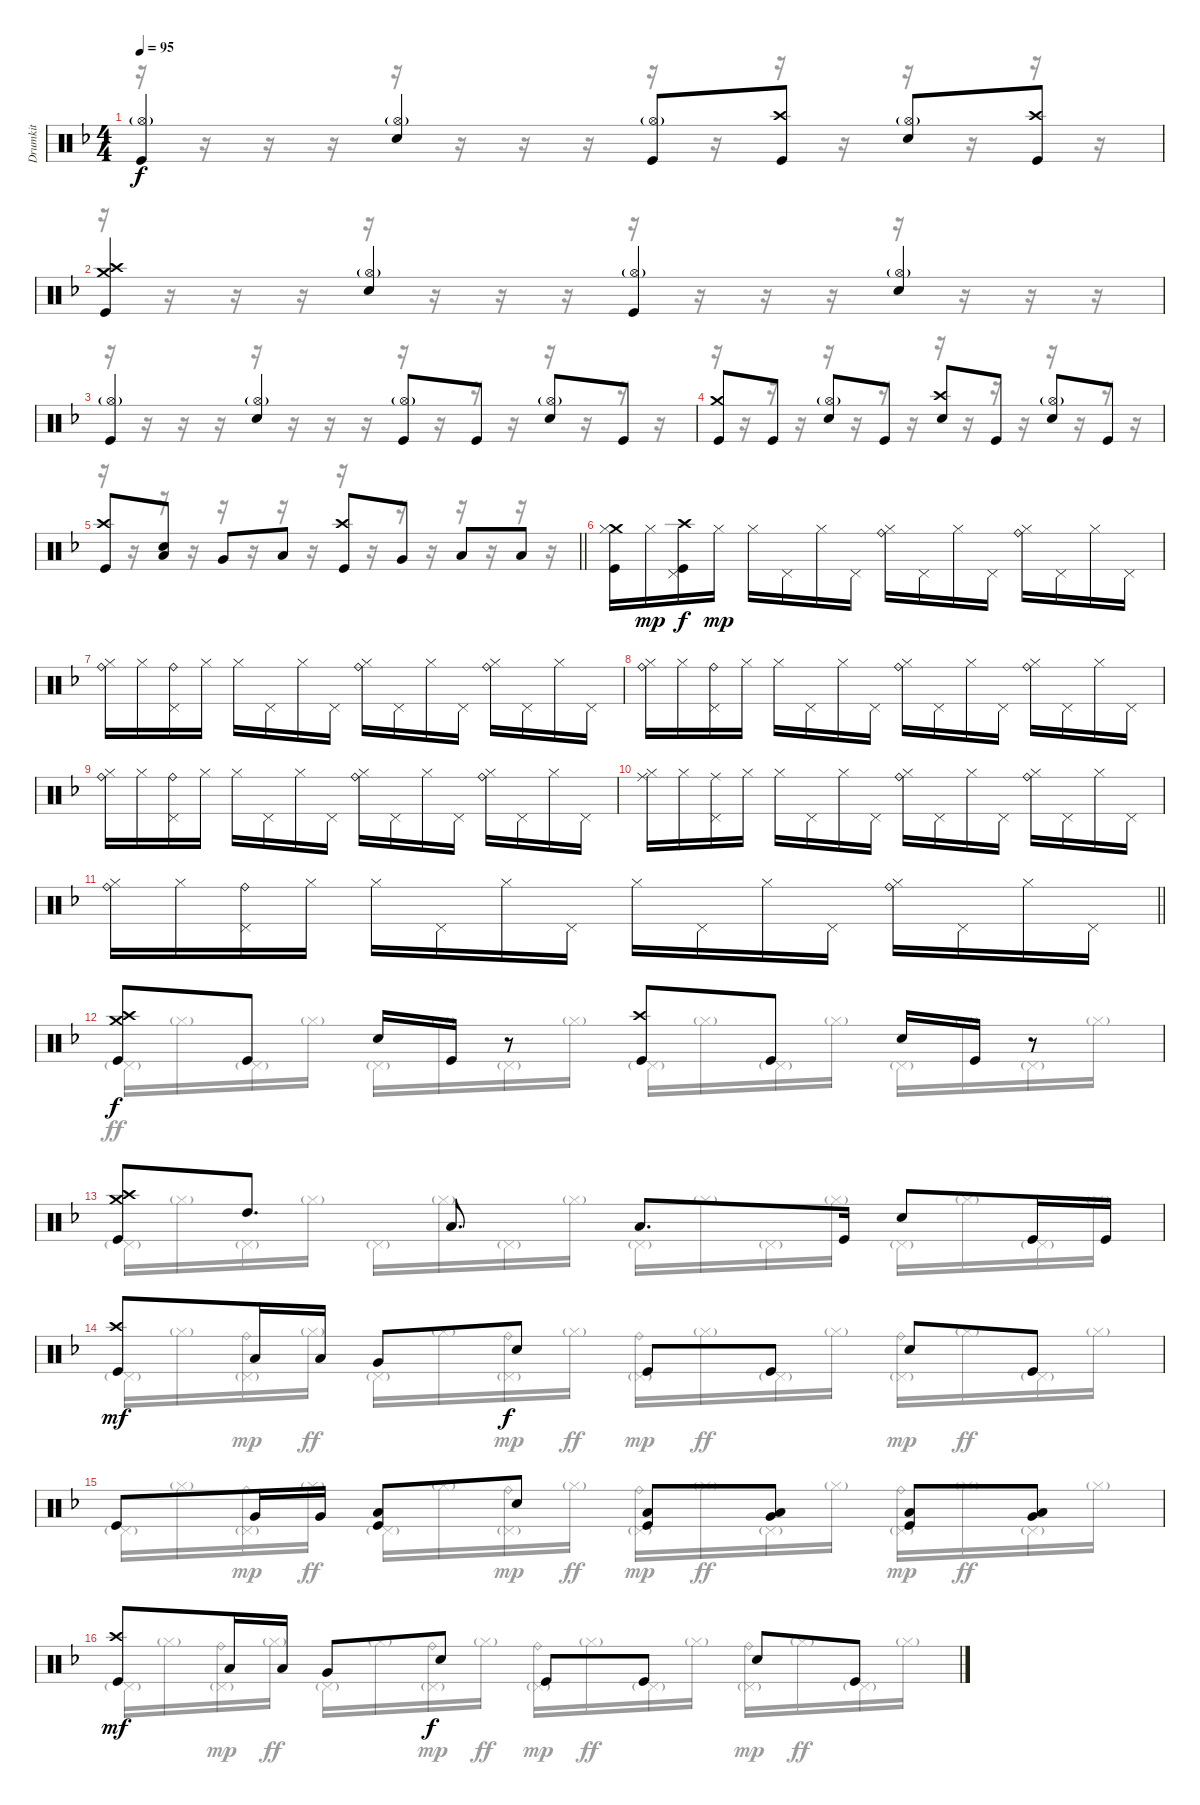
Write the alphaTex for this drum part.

\track ("Drumkit" "Drumkit") {instrument percussion}
\staff {score}
\articulation defaults
\voice
\ts (4 4)
\tempo 95
\clef neutral
\ks f
("Hi-Hat (open)"{g} "Kick (hit)").4{dy f} ("Hi-Hat (open)"{g} "Snare (hit) 2").4 ("Hi-Hat (open)"{g} "Kick (hit)").8 ("Crash high (hit)" "Kick (hit)").8 ("Hi-Hat (open)"{g} "Snare (hit) 2").8 ("Crash high (hit)" "Kick (hit)").8 |
("Crash high (hit)" "Crash medium (hit)" "Kick (hit)").4 ("Hi-Hat (open)"{g} "Snare (hit) 2").4 ("Hi-Hat (open)"{g} "Kick (hit)").4 ("Hi-Hat (open)"{g} "Snare (hit) 2").4 |
("Hi-Hat (open)"{g} "Kick (hit)").4 ("Hi-Hat (open)"{g} "Snare (hit) 2").4 ("Hi-Hat (open)"{g} "Kick (hit)").8 "Kick (hit)".8 ("Hi-Hat (open)"{g} "Snare (hit) 2").8 "Kick (hit)".8 |
("Crash medium (hit)" "Kick (hit)").8 "Kick (hit)".8 ("Hi-Hat (open)"{g} "Snare (hit) 2").8 "Kick (hit)".8 ("Crash high (hit)" "Snare (hit) 2").8 "Kick (hit)".8 ("Hi-Hat (open)"{g} "Snare (hit) 2").8 "Kick (hit)".8 |
\barLineRight lightlight
("Crash high (hit)" "Kick (hit)").8 ("Snare (hit) 2" "Low Tom (hit)").8 "Very Low Tom (hit)".8 "Low Floor Tom (hit)".8 ("Crash high (hit)" "Kick (hit)").8 "Very Low Tom (hit)".8 "Low Floor Tom (hit)".8 "Low Floor Tom (hit)".8 |
("Crash medium (hit)" "Hi-Hat (closed)" "Kick (hit)").16 "Hi-Hat (closed)".16{dy mp} ("Crash high (hit)" "Pedal Hi-Hat (hit)" "Kick (hit)").16{dy f} "Hi-Hat (closed)".16{dy mp} "Hi-Hat (closed)".16 "Pedal Hi-Hat (hit)".16 "Hi-Hat (closed)".16 "Pedal Hi-Hat (hit)".16 ("Hi-Hat (closed)" "Ride (bell)").16 "Pedal Hi-Hat (hit)".16 "Hi-Hat (closed)".16 "Pedal Hi-Hat (hit)".16 ("Hi-Hat (closed)" "Ride (bell)").16 "Pedal Hi-Hat (hit)".16 "Hi-Hat (closed)".16 "Pedal Hi-Hat (hit)".16 |
("Hi-Hat (closed)" "Ride (bell)").16 "Hi-Hat (closed)".16 ("Pedal Hi-Hat (hit)" "Ride (bell)").16 "Hi-Hat (closed)".16 "Hi-Hat (closed)".16 "Pedal Hi-Hat (hit)".16 "Hi-Hat (closed)".16 "Pedal Hi-Hat (hit)".16 ("Hi-Hat (closed)" "Ride (bell)").16 "Pedal Hi-Hat (hit)".16 "Hi-Hat (closed)".16 "Pedal Hi-Hat (hit)".16 ("Hi-Hat (closed)" "Ride (bell)").16 "Pedal Hi-Hat (hit)".16 "Hi-Hat (closed)".16 "Pedal Hi-Hat (hit)".16 |
("Hi-Hat (closed)" "Ride (bell)").16 "Hi-Hat (closed)".16 ("Pedal Hi-Hat (hit)" "Ride (bell)").16 "Hi-Hat (closed)".16 "Hi-Hat (closed)".16 "Pedal Hi-Hat (hit)".16 "Hi-Hat (closed)".16 "Pedal Hi-Hat (hit)".16 ("Hi-Hat (closed)" "Ride (bell)").16 "Pedal Hi-Hat (hit)".16 "Hi-Hat (closed)".16 "Pedal Hi-Hat (hit)".16 ("Hi-Hat (closed)" "Ride (bell)").16 "Pedal Hi-Hat (hit)".16 "Hi-Hat (closed)".16 "Pedal Hi-Hat (hit)".16 |
("Hi-Hat (closed)" "Ride (bell)").16 "Hi-Hat (closed)".16 ("Pedal Hi-Hat (hit)" "Ride (bell)").16 "Hi-Hat (closed)".16 "Hi-Hat (closed)".16 "Pedal Hi-Hat (hit)".16 "Hi-Hat (closed)".16 "Pedal Hi-Hat (hit)".16 ("Hi-Hat (closed)" "Ride (bell)").16 "Pedal Hi-Hat (hit)".16 "Hi-Hat (closed)".16 "Pedal Hi-Hat (hit)".16 ("Hi-Hat (closed)" "Ride (bell)").16 "Pedal Hi-Hat (hit)".16 "Hi-Hat (closed)".16 "Pedal Hi-Hat (hit)".16 |
("Hi-Hat (closed)" "Ride (middle)").16 "Hi-Hat (closed)".16 ("Pedal Hi-Hat (hit)" "Ride (middle)").16 "Hi-Hat (closed)".16 "Hi-Hat (closed)".16 "Pedal Hi-Hat (hit)".16 "Hi-Hat (closed)".16 "Pedal Hi-Hat (hit)".16 ("Hi-Hat (closed)" "Ride (bell)").16 "Pedal Hi-Hat (hit)".16 "Hi-Hat (closed)".16 "Pedal Hi-Hat (hit)".16 ("Hi-Hat (closed)" "Ride (bell)").16 "Pedal Hi-Hat (hit)".16 "Hi-Hat (closed)".16 "Pedal Hi-Hat (hit)".16 |
\barLineRight lightlight
("Hi-Hat (closed)" "Ride (bell)").16 "Hi-Hat (closed)".16 ("Pedal Hi-Hat (hit)" "Ride (bell)").16 "Hi-Hat (closed)".16 "Hi-Hat (closed)".16 "Pedal Hi-Hat (hit)".16 "Hi-Hat (closed)".16 "Pedal Hi-Hat (hit)".16 "Hi-Hat (closed)".16 "Pedal Hi-Hat (hit)".16 "Hi-Hat (closed)".16 "Pedal Hi-Hat (hit)".16 ("Hi-Hat (closed)" "Ride (bell)").16 "Pedal Hi-Hat (hit)".16 "Hi-Hat (closed)".16 "Pedal Hi-Hat (hit)".16 |
("Crash high (hit)" "Crash medium (hit)" "Kick (hit)").8{dy f} "Kick (hit)".8 "Snare (hit) 2".16 "Kick (hit)".16 r.8 ("Crash high (hit)" "Kick (hit)").8 "Kick (hit)".8 "Snare (hit) 2".16 "Kick (hit)".16 r.8 |
("Crash high (hit)" "Crash medium (hit)" "Kick (hit)").8 "High Tom (hit)".8{d} "Low Tom (hit)".8{d} "Low Floor Tom (hit)".8{d} "Kick (hit)".16 "Snare (hit) 2".8 "Kick (hit)".16 "Kick (hit)".16 |
("Crash high (hit)" "Kick (hit)").8{dy mf} "Low Tom (hit)".16 "Low Tom (hit)".16 "Very Low Tom (hit)".8 "Snare (hit) 2".8{dy f} "Kick (hit)".8 "Kick (hit)".8 "Snare (hit) 2".8 "Kick (hit)".8 |
"Kick (hit)".8 "Very Low Tom (hit)".16 "Very Low Tom (hit)".16 ("Low Floor Tom (hit)" "Kick (hit)").8 "Snare (hit) 2".8 ("Low Floor Tom (hit)" "Kick (hit)").8 ("Very Low Tom (hit)" "Low Floor Tom (hit)").8 ("Low Floor Tom (hit)" "Kick (hit)").8 ("Very Low Tom (hit)" "Low Floor Tom (hit)").8 |
("Crash high (hit)" "Kick (hit)").8{dy mf} "Low Tom (hit)".16 "Low Tom (hit)".16 "Very Low Tom (hit)".8 "Snare (hit) 2".8{dy f} "Kick (hit)".8 "Kick (hit)".8 "Snare (hit) 2".8 "Kick (hit)".8
\voice
\clef neutral
\ottava regular
\simile none
\ks f
r.16{dy ff} r.16 r.16 r.16 r.16 r.16 r.16 r.16 r.16 r.16 r.16 r.16 r.16 r.16 r.16 r.16 |
r.16 r.16 r.16 r.16 r.16 r.16 r.16 r.16 r.16 r.16 r.16 r.16 r.16 r.16 r.16 r.16 |
r.16 r.16 r.16 r.16 r.16 r.16 r.16 r.16 r.16 r.16 r.16 r.16 r.16 r.16 r.16 r.16 |
r.16 r.16 r.16 r.16 r.16 r.16 r.16 r.16 r.16 r.16 r.16 r.16 r.16 r.16 r.16 r.16 |
\barLineRight lightlight
r.16 r.16 r.16 r.16 r.16 r.16 r.16 r.16 r.16 r.16 r.16 r.16 r.16 r.16 r.16 r.16 |
|
|
|
|
|
\barLineRight lightlight
|
"Pedal Hi-Hat (hit)"{g}.16 "Hi-Hat (closed)"{g}.16 "Pedal Hi-Hat (hit)"{g}.16 "Hi-Hat (closed)"{g}.16 "Pedal Hi-Hat (hit)"{g}.16 "Hi-Hat (closed)"{g}.16 "Pedal Hi-Hat (hit)"{g}.16 "Hi-Hat (closed)"{g}.16 "Pedal Hi-Hat (hit)"{g}.16 "Hi-Hat (closed)"{g}.16 "Pedal Hi-Hat (hit)"{g}.16 "Hi-Hat (closed)"{g}.16 "Pedal Hi-Hat (hit)"{g}.16 "Hi-Hat (closed)"{g}.16 "Pedal Hi-Hat (hit)"{g}.16 "Hi-Hat (closed)"{g}.16 |
"Pedal Hi-Hat (hit)"{g}.16 "Hi-Hat (closed)"{g}.16 "Pedal Hi-Hat (hit)"{g}.16 "Hi-Hat (closed)"{g}.16 "Pedal Hi-Hat (hit)"{g}.16 "Hi-Hat (closed)"{g}.16 "Pedal Hi-Hat (hit)"{g}.16 "Hi-Hat (closed)"{g}.16 "Pedal Hi-Hat (hit)"{g}.16 "Hi-Hat (closed)"{g}.16 "Pedal Hi-Hat (hit)"{g}.16 "Hi-Hat (closed)"{g}.16 "Pedal Hi-Hat (hit)"{g}.16 "Hi-Hat (closed)"{g}.16 "Pedal Hi-Hat (hit)"{g}.16 "Hi-Hat (closed)"{g}.16 |
"Pedal Hi-Hat (hit)"{g}.16 "Hi-Hat (closed)"{g}.16 ("Pedal Hi-Hat (hit)"{g} "Ride (bell)").16{dy mp} "Hi-Hat (closed)"{g}.16{dy ff} "Pedal Hi-Hat (hit)"{g}.16 "Hi-Hat (closed)"{g}.16 ("Pedal Hi-Hat (hit)"{g} "Ride (bell)").16{dy mp} "Hi-Hat (closed)"{g}.16{dy ff} ("Pedal Hi-Hat (hit)"{g} "Ride (bell)").16{dy mp} "Hi-Hat (closed)"{g}.16{dy ff} "Pedal Hi-Hat (hit)"{g}.16 "Hi-Hat (closed)"{g}.16 ("Pedal Hi-Hat (hit)"{g} "Ride (bell)").16{dy mp} "Hi-Hat (closed)"{g}.16{dy ff} "Pedal Hi-Hat (hit)"{g}.16 "Hi-Hat (closed)"{g}.16 |
"Pedal Hi-Hat (hit)"{g}.16 "Hi-Hat (closed)"{g}.16 ("Pedal Hi-Hat (hit)"{g} "Ride (bell)").16{dy mp} "Hi-Hat (closed)"{g}.16{dy ff} "Pedal Hi-Hat (hit)"{g}.16 "Hi-Hat (closed)"{g}.16 ("Pedal Hi-Hat (hit)"{g} "Ride (bell)").16{dy mp} "Hi-Hat (closed)"{g}.16{dy ff} ("Pedal Hi-Hat (hit)"{g} "Ride (bell)").16{dy mp} "Hi-Hat (closed)"{g}.16{dy ff} "Pedal Hi-Hat (hit)"{g}.16 "Hi-Hat (closed)"{g}.16 ("Pedal Hi-Hat (hit)"{g} "Ride (bell)").16{dy mp} "Hi-Hat (closed)"{g}.16{dy ff} "Pedal Hi-Hat (hit)"{g}.16 "Hi-Hat (closed)"{g}.16 |
"Pedal Hi-Hat (hit)"{g}.16 "Hi-Hat (closed)"{g}.16 ("Pedal Hi-Hat (hit)"{g} "Ride (bell)").16{dy mp} "Hi-Hat (closed)"{g}.16{dy ff} "Pedal Hi-Hat (hit)"{g}.16 "Hi-Hat (closed)"{g}.16 ("Pedal Hi-Hat (hit)"{g} "Ride (bell)").16{dy mp} "Hi-Hat (closed)"{g}.16{dy ff} ("Pedal Hi-Hat (hit)"{g} "Ride (bell)").16{dy mp} "Hi-Hat (closed)"{g}.16{dy ff} "Pedal Hi-Hat (hit)"{g}.16 "Hi-Hat (closed)"{g}.16 ("Pedal Hi-Hat (hit)"{g} "Ride (bell)").16{dy mp} "Hi-Hat (closed)"{g}.16{dy ff} "Pedal Hi-Hat (hit)"{g}.16 "Hi-Hat (closed)"{g}.16
